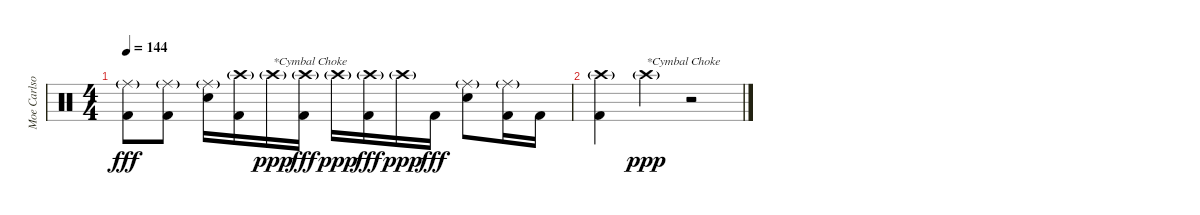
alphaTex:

\track ("Moe Carlson" "Moe Carlso") {solo instrument percussion}
\staff {score}
\articulation defaults
\ts (4 4)
\tempo 144
\clef neutral
\ks c
("Ride (middle)"{g} "Kick (hit) 2").8{dy fff} ("Ride (middle)"{g} "Kick (hit) 2").8 ("Ride (middle)"{g} "Electric Snare (hit)").16 ("Crash high (hit)"{g} "Kick (hit) 2").16 "Crash high (hit)"{g}.16{txt "*Cymbal Choke" dy ppp} ("Crash high (hit)"{g} "Kick (hit) 2").16{dy fff} "Crash high (hit)"{g}.16{dy ppp} ("Crash high (hit)"{g} "Kick (hit) 2").16{dy fff} "Crash high (hit)"{g}.16{dy ppp} "Kick (hit) 2".16{dy fff} ("Ride (middle)"{g} "Electric Snare (hit)").8 ("Ride (middle)"{g} "Kick (hit) 2").16 "Kick (hit) 2".16 |
("Crash high (hit)"{g} "Kick (hit) 2").4 "Crash high (hit)"{g}.4{txt "*Cymbal Choke" dy ppp volume 0} r.2
